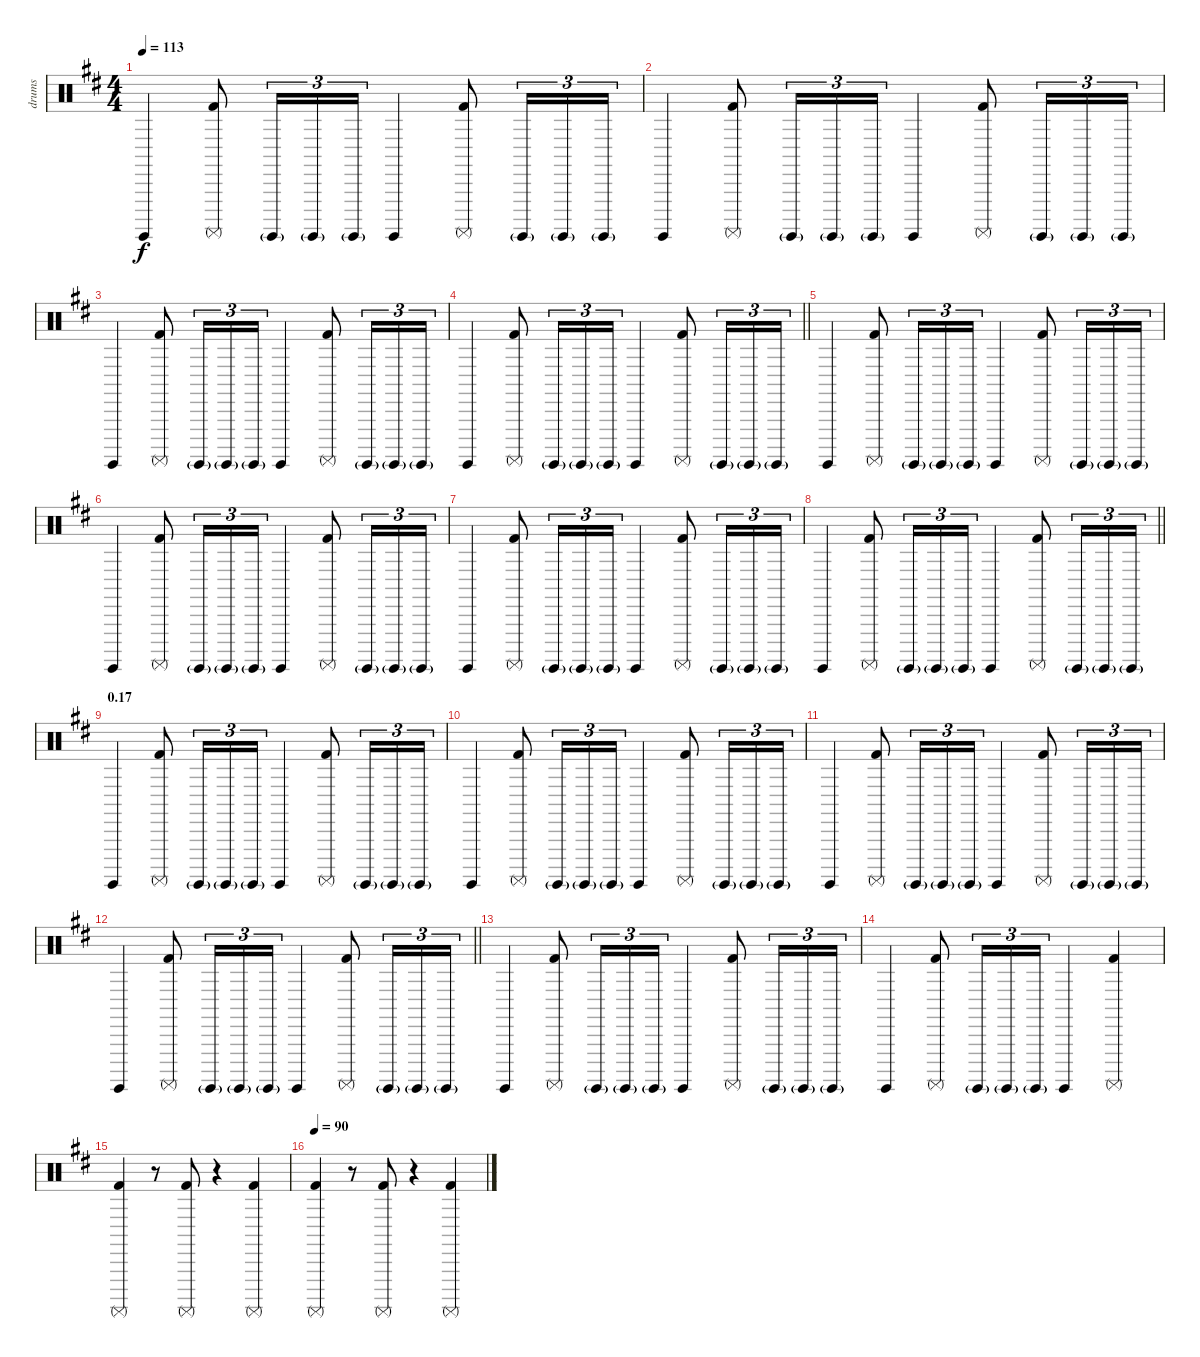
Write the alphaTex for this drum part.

\track ("drums" "drums") {instrument percussion}
\staff {score}
\articulation defaults
\ts (4 4)
\tempo 113
\clef neutral
\ks d "Surdo (hit)".4{dy f}
("Surdo (mute)" "Kick (hit) 2").8 "Surdo (hit)"{g}.16{tu (3 2)} "Surdo (hit)"{g}.16{tu (3 2)} "Surdo (hit)"{g}.16{tu (3 2)} "Surdo (hit)".4 ("Surdo (mute)" "Kick (hit) 2").8 "Surdo (hit)"{g}.16{tu (3 2)} "Surdo (hit)"{g}.16{tu (3 2)} "Surdo (hit)"{g}.16{tu (3 2)} |
"Surdo (hit)".4 ("Surdo (mute)" "Kick (hit) 2").8 "Surdo (hit)"{g}.16{tu (3 2)} "Surdo (hit)"{g}.16{tu (3 2)} "Surdo (hit)"{g}.16{tu (3 2)} "Surdo (hit)".4 ("Surdo (mute)" "Kick (hit) 2").8 "Surdo (hit)"{g}.16{tu (3 2)} "Surdo (hit)"{g}.16{tu (3 2)} "Surdo (hit)"{g}.16{tu (3 2)} |
"Surdo (hit)".4 ("Surdo (mute)" "Kick (hit) 2").8 "Surdo (hit)"{g}.16{tu (3 2)} "Surdo (hit)"{g}.16{tu (3 2)} "Surdo (hit)"{g}.16{tu (3 2)} "Surdo (hit)".4 ("Surdo (mute)" "Kick (hit) 2").8 "Surdo (hit)"{g}.16{tu (3 2)} "Surdo (hit)"{g}.16{tu (3 2)} "Surdo (hit)"{g}.16{tu (3 2)} |
\barLineRight lightlight "Surdo (hit)".4
("Surdo (mute)" "Kick (hit) 2").8 "Surdo (hit)"{g}.16{tu (3 2)} "Surdo (hit)"{g}.16{tu (3 2)} "Surdo (hit)"{g}.16{tu (3 2)} "Surdo (hit)".4 ("Surdo (mute)" "Kick (hit) 2").8 "Surdo (hit)"{g}.16{tu (3 2)} "Surdo (hit)"{g}.16{tu (3 2)} "Surdo (hit)"{g}.16{tu (3 2)} |
"Surdo (hit)".4 ("Surdo (mute)" "Kick (hit) 2").8 "Surdo (hit)"{g}.16{tu (3 2)} "Surdo (hit)"{g}.16{tu (3 2)} "Surdo (hit)"{g}.16{tu (3 2)} "Surdo (hit)".4 ("Surdo (mute)" "Kick (hit) 2").8 "Surdo (hit)"{g}.16{tu (3 2)} "Surdo (hit)"{g}.16{tu (3 2)} "Surdo (hit)"{g}.16{tu (3 2)} |
"Surdo (hit)".4 ("Surdo (mute)" "Kick (hit) 2").8 "Surdo (hit)"{g}.16{tu (3 2)} "Surdo (hit)"{g}.16{tu (3 2)} "Surdo (hit)"{g}.16{tu (3 2)} "Surdo (hit)".4 ("Surdo (mute)" "Kick (hit) 2").8 "Surdo (hit)"{g}.16{tu (3 2)} "Surdo (hit)"{g}.16{tu (3 2)} "Surdo (hit)"{g}.16{tu (3 2)} |
"Surdo (hit)".4 ("Surdo (mute)" "Kick (hit) 2").8 "Surdo (hit)"{g}.16{tu (3 2)} "Surdo (hit)"{g}.16{tu (3 2)} "Surdo (hit)"{g}.16{tu (3 2)} "Surdo (hit)".4 ("Surdo (mute)" "Kick (hit) 2").8 "Surdo (hit)"{g}.16{tu (3 2)} "Surdo (hit)"{g}.16{tu (3 2)} "Surdo (hit)"{g}.16{tu (3 2)} |
\barLineRight lightlight "Surdo (hit)".4
("Surdo (mute)" "Kick (hit) 2").8 "Surdo (hit)"{g}.16{tu (3 2)} "Surdo (hit)"{g}.16{tu (3 2)} "Surdo (hit)"{g}.16{tu (3 2)} "Surdo (hit)".4 ("Surdo (mute)" "Kick (hit) 2").8 "Surdo (hit)"{g}.16{tu (3 2)} "Surdo (hit)"{g}.16{tu (3 2)} "Surdo (hit)"{g}.16{tu (3 2)} |
\section ("" "0.17")
"Surdo (hit)".4 ("Surdo (mute)" "Kick (hit) 2").8 "Surdo (hit)"{g}.16{tu (3 2)} "Surdo (hit)"{g}.16{tu (3 2)} "Surdo (hit)"{g}.16{tu (3 2)} "Surdo (hit)".4 ("Surdo (mute)" "Kick (hit) 2").8 "Surdo (hit)"{g}.16{tu (3 2)} "Surdo (hit)"{g}.16{tu (3 2)} "Surdo (hit)"{g}.16{tu (3 2)} |
"Surdo (hit)".4 ("Surdo (mute)" "Kick (hit) 2").8 "Surdo (hit)"{g}.16{tu (3 2)} "Surdo (hit)"{g}.16{tu (3 2)} "Surdo (hit)"{g}.16{tu (3 2)} "Surdo (hit)".4 ("Surdo (mute)" "Kick (hit) 2").8 "Surdo (hit)"{g}.16{tu (3 2)} "Surdo (hit)"{g}.16{tu (3 2)} "Surdo (hit)"{g}.16{tu (3 2)} |
"Surdo (hit)".4 ("Surdo (mute)" "Kick (hit) 2").8 "Surdo (hit)"{g}.16{tu (3 2)} "Surdo (hit)"{g}.16{tu (3 2)} "Surdo (hit)"{g}.16{tu (3 2)} "Surdo (hit)".4 ("Surdo (mute)" "Kick (hit) 2").8 "Surdo (hit)"{g}.16{tu (3 2)} "Surdo (hit)"{g}.16{tu (3 2)} "Surdo (hit)"{g}.16{tu (3 2)} |
\barLineRight lightlight "Surdo (hit)".4
("Surdo (mute)" "Kick (hit) 2").8 "Surdo (hit)"{g}.16{tu (3 2)} "Surdo (hit)"{g}.16{tu (3 2)} "Surdo (hit)"{g}.16{tu (3 2)} "Surdo (hit)".4 ("Surdo (mute)" "Kick (hit) 2").8 "Surdo (hit)"{g}.16{tu (3 2)} "Surdo (hit)"{g}.16{tu (3 2)} "Surdo (hit)"{g}.16{tu (3 2)} |
"Surdo (hit)".4 ("Surdo (mute)" "Kick (hit) 2").8 "Surdo (hit)"{g}.16{tu (3 2)} "Surdo (hit)"{g}.16{tu (3 2)} "Surdo (hit)"{g}.16{tu (3 2)} "Surdo (hit)".4 ("Surdo (mute)" "Kick (hit) 2").8 "Surdo (hit)"{g}.16{tu (3 2)} "Surdo (hit)"{g}.16{tu (3 2)} "Surdo (hit)"{g}.16{tu (3 2)} |
"Surdo (hit)".4 ("Surdo (mute)" "Kick (hit) 2").8 "Surdo (hit)"{g}.16{tu (3 2)} "Surdo (hit)"{g}.16{tu (3 2)} "Surdo (hit)"{g}.16{tu (3 2)} "Surdo (hit)".4 ("Surdo (mute)" "Kick (hit) 2").4 |
("Surdo (mute)" "Kick (hit) 2").4 r.8 ("Surdo (mute)" "Kick (hit) 2").8 r.4 ("Surdo (mute)" "Kick (hit) 2").4 |
\tempo 90
("Surdo (mute)" "Kick (hit) 2").4 r.8 ("Surdo (mute)" "Kick (hit) 2").8 r.4 ("Surdo (mute)" "Kick (hit) 2").4
